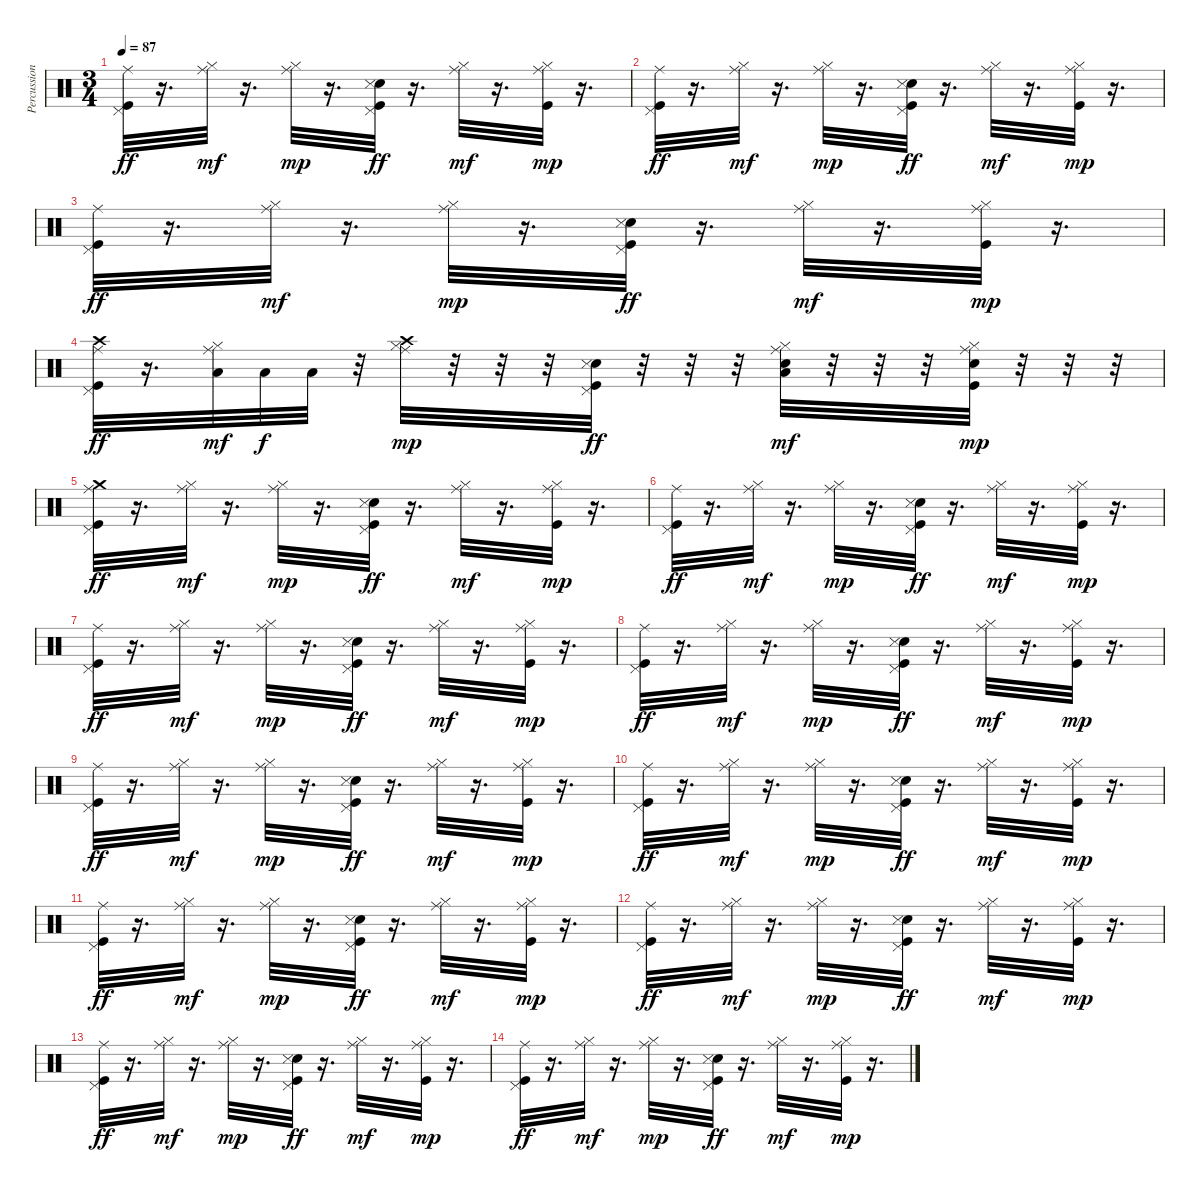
\track ("Percussion" "Percussion") {instrument percussion}
\staff {score}
\articulation defaults
\ts (3 4)
\tempo 87
\clef neutral
\ks c
("Kick (hit)" "Ride (middle)" "Pedal Hi-Hat (hit)").32{dy ff} r.16{d} ("Hi-Hat (closed)" "Ride (middle)").32{dy mf} r.16{d} ("Hi-Hat (closed)" "Ride (middle)").32{dy mp} r.16{d} ("Kick (hit)" "Pedal Hi-Hat (hit)" "Electric Snare (hit)" "Snare (side stick) 3").32{dy ff} r.16{d} ("Hi-Hat (closed)" "Ride (middle)").32{dy mf} r.16{d} ("Hi-Hat (closed)" "Ride (middle)" "Kick (hit)").32{dy mp} r.16{d} |
("Kick (hit)" "Ride (middle)" "Pedal Hi-Hat (hit)").32{dy ff} r.16{d} ("Hi-Hat (closed)" "Ride (middle)").32{dy mf} r.16{d} ("Hi-Hat (closed)" "Ride (middle)").32{dy mp} r.16{d} ("Kick (hit)" "Pedal Hi-Hat (hit)" "Electric Snare (hit)" "Snare (side stick) 3").32{dy ff} r.16{d} ("Hi-Hat (closed)" "Ride (middle)").32{dy mf} r.16{d} ("Hi-Hat (closed)" "Ride (middle)" "Kick (hit)").32{dy mp} r.16{d} |
("Kick (hit)" "Ride (middle)" "Pedal Hi-Hat (hit)").32{dy ff} r.16{d} ("Hi-Hat (closed)" "Ride (middle)").32{dy mf} r.16{d} ("Hi-Hat (closed)" "Ride (middle)").32{dy mp} r.16{d} ("Kick (hit)" "Pedal Hi-Hat (hit)" "Electric Snare (hit)" "Snare (side stick) 3").32{dy ff} r.16{d} ("Hi-Hat (closed)" "Ride (middle)").32{dy mf} r.16{d} ("Hi-Hat (closed)" "Ride (middle)" "Kick (hit)").32{dy mp} r.16{d} |
("Kick (hit)" "Ride (middle)" "Pedal Hi-Hat (hit)" "Crash high (hit)").32{dy ff} r.16{d} ("Hi-Hat (closed)" "Ride (middle)" "Low Tom (hit)").32{dy mf} "Low Tom (hit)".32{dy f} "Low Tom (hit)".32 r.32 ("Hi-Hat (closed)" "Ride (middle)" "Crash high (hit)").32{dy mp} r.32 r.32 r.32 ("Kick (hit)" "Pedal Hi-Hat (hit)" "Electric Snare (hit)" "Snare (side stick) 3").32{dy ff} r.32 r.32 r.32 ("Hi-Hat (closed)" "Ride (middle)" "Low Tom (hit)" "Electric Snare (hit)").32{dy mf} r.32 r.32 r.32 ("Hi-Hat (closed)" "Ride (middle)" "Electric Snare (hit)" "Kick (hit)").32{dy mp} r.32 r.32 r.32 |
("Kick (hit)" "Ride (middle)" "Pedal Hi-Hat (hit)" "Crash medium (hit)").32{dy ff} r.16{d} ("Hi-Hat (closed)" "Ride (middle)").32{dy mf} r.16{d} ("Hi-Hat (closed)" "Ride (middle)").32{dy mp} r.16{d} ("Kick (hit)" "Pedal Hi-Hat (hit)" "Electric Snare (hit)" "Snare (side stick) 3").32{dy ff} r.16{d} ("Hi-Hat (closed)" "Ride (middle)").32{dy mf} r.16{d} ("Hi-Hat (closed)" "Ride (middle)" "Kick (hit)").32{dy mp} r.16{d} |
("Kick (hit)" "Ride (middle)" "Pedal Hi-Hat (hit)").32{dy ff} r.16{d} ("Hi-Hat (closed)" "Ride (middle)").32{dy mf} r.16{d} ("Hi-Hat (closed)" "Ride (middle)").32{dy mp} r.16{d} ("Kick (hit)" "Pedal Hi-Hat (hit)" "Electric Snare (hit)" "Snare (side stick) 3").32{dy ff} r.16{d} ("Hi-Hat (closed)" "Ride (middle)").32{dy mf} r.16{d} ("Hi-Hat (closed)" "Ride (middle)" "Kick (hit)").32{dy mp} r.16{d} |
("Kick (hit)" "Ride (middle)" "Pedal Hi-Hat (hit)").32{dy ff} r.16{d} ("Hi-Hat (closed)" "Ride (middle)").32{dy mf} r.16{d} ("Hi-Hat (closed)" "Ride (middle)").32{dy mp} r.16{d} ("Kick (hit)" "Pedal Hi-Hat (hit)" "Electric Snare (hit)" "Snare (side stick) 3").32{dy ff} r.16{d} ("Hi-Hat (closed)" "Ride (middle)").32{dy mf} r.16{d} ("Hi-Hat (closed)" "Ride (middle)" "Kick (hit)").32{dy mp} r.16{d} |
("Kick (hit)" "Ride (middle)" "Pedal Hi-Hat (hit)").32{dy ff} r.16{d} ("Hi-Hat (closed)" "Ride (middle)").32{dy mf} r.16{d} ("Hi-Hat (closed)" "Ride (middle)").32{dy mp} r.16{d} ("Kick (hit)" "Pedal Hi-Hat (hit)" "Electric Snare (hit)" "Snare (side stick) 3").32{dy ff} r.16{d} ("Hi-Hat (closed)" "Ride (middle)").32{dy mf} r.16{d} ("Hi-Hat (closed)" "Ride (middle)" "Kick (hit)").32{dy mp} r.16{d} |
("Kick (hit)" "Ride (middle)" "Pedal Hi-Hat (hit)").32{dy ff} r.16{d} ("Hi-Hat (closed)" "Ride (middle)").32{dy mf} r.16{d} ("Hi-Hat (closed)" "Ride (middle)").32{dy mp} r.16{d} ("Kick (hit)" "Pedal Hi-Hat (hit)" "Electric Snare (hit)" "Snare (side stick) 3").32{dy ff} r.16{d} ("Hi-Hat (closed)" "Ride (middle)").32{dy mf} r.16{d} ("Hi-Hat (closed)" "Ride (middle)" "Kick (hit)").32{dy mp} r.16{d} |
("Kick (hit)" "Ride (middle)" "Pedal Hi-Hat (hit)").32{dy ff} r.16{d} ("Hi-Hat (closed)" "Ride (middle)").32{dy mf} r.16{d} ("Hi-Hat (closed)" "Ride (middle)").32{dy mp} r.16{d} ("Kick (hit)" "Pedal Hi-Hat (hit)" "Electric Snare (hit)" "Snare (side stick) 3").32{dy ff} r.16{d} ("Hi-Hat (closed)" "Ride (middle)").32{dy mf} r.16{d} ("Hi-Hat (closed)" "Ride (middle)" "Kick (hit)").32{dy mp} r.16{d} |
("Kick (hit)" "Ride (middle)" "Pedal Hi-Hat (hit)").32{dy ff} r.16{d} ("Hi-Hat (closed)" "Ride (middle)").32{dy mf} r.16{d} ("Hi-Hat (closed)" "Ride (middle)").32{dy mp} r.16{d} ("Kick (hit)" "Pedal Hi-Hat (hit)" "Electric Snare (hit)" "Snare (side stick) 3").32{dy ff} r.16{d} ("Hi-Hat (closed)" "Ride (middle)").32{dy mf} r.16{d} ("Hi-Hat (closed)" "Ride (middle)" "Kick (hit)").32{dy mp} r.16{d} |
("Kick (hit)" "Ride (middle)" "Pedal Hi-Hat (hit)").32{dy ff} r.16{d} ("Hi-Hat (closed)" "Ride (middle)").32{dy mf} r.16{d} ("Hi-Hat (closed)" "Ride (middle)").32{dy mp} r.16{d} ("Kick (hit)" "Pedal Hi-Hat (hit)" "Electric Snare (hit)" "Snare (side stick) 3").32{dy ff} r.16{d} ("Hi-Hat (closed)" "Ride (middle)").32{dy mf} r.16{d} ("Hi-Hat (closed)" "Ride (middle)" "Kick (hit)").32{dy mp} r.16{d} |
("Kick (hit)" "Ride (middle)" "Pedal Hi-Hat (hit)").32{dy ff} r.16{d} ("Hi-Hat (closed)" "Ride (middle)").32{dy mf} r.16{d} ("Hi-Hat (closed)" "Ride (middle)").32{dy mp} r.16{d} ("Kick (hit)" "Pedal Hi-Hat (hit)" "Electric Snare (hit)" "Snare (side stick) 3").32{dy ff} r.16{d} ("Hi-Hat (closed)" "Ride (middle)").32{dy mf} r.16{d} ("Hi-Hat (closed)" "Ride (middle)" "Kick (hit)").32{dy mp} r.16{d} |
("Kick (hit)" "Ride (middle)" "Pedal Hi-Hat (hit)").32{dy ff} r.16{d} ("Hi-Hat (closed)" "Ride (middle)").32{dy mf} r.16{d} ("Hi-Hat (closed)" "Ride (middle)").32{dy mp} r.16{d} ("Kick (hit)" "Pedal Hi-Hat (hit)" "Electric Snare (hit)" "Snare (side stick) 3").32{dy ff} r.16{d} ("Hi-Hat (closed)" "Ride (middle)").32{dy mf} r.16{d} ("Hi-Hat (closed)" "Ride (middle)" "Kick (hit)").32{dy mp} r.16{d}
